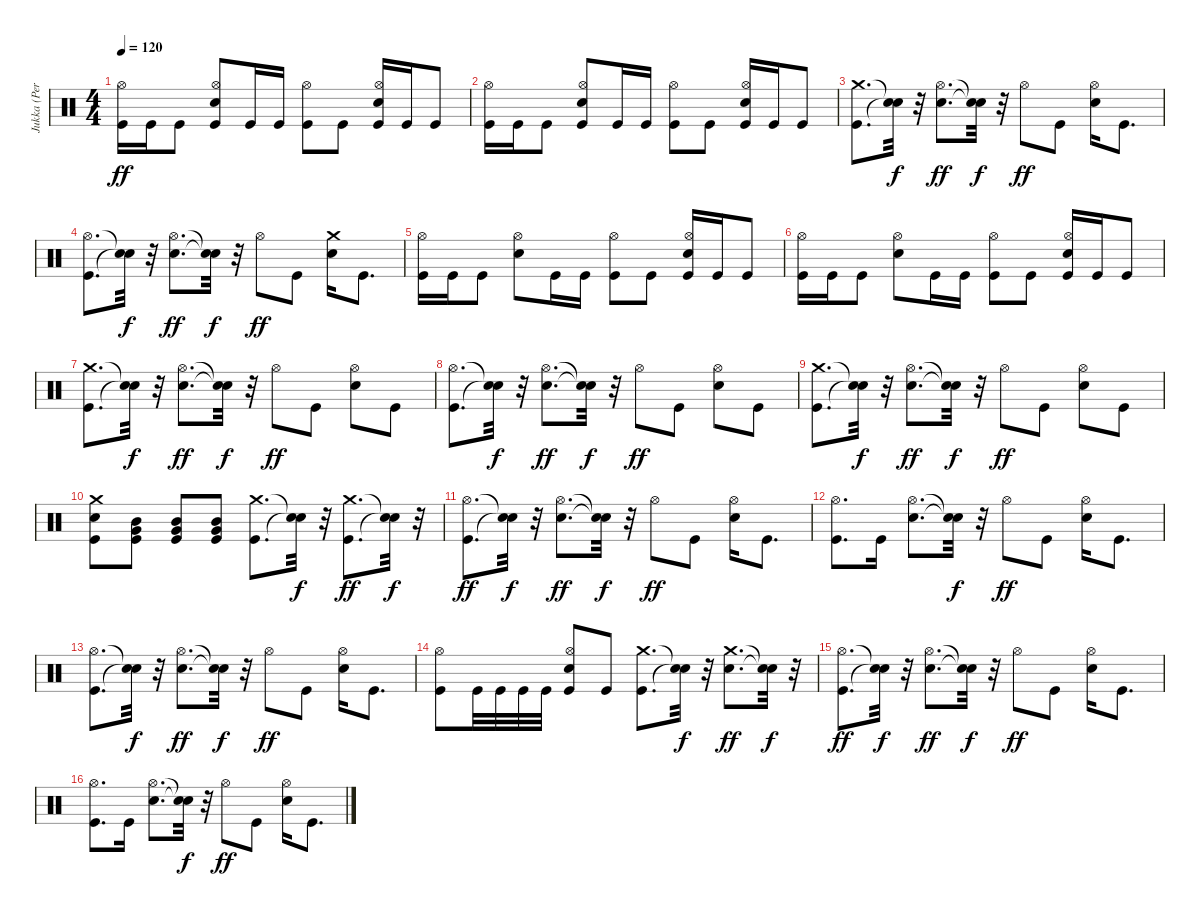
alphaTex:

\track ("Jukka (Percussion)" "Jukka (Per") {instrument percussion}
\staff {score}
\articulation defaults
\ts (4 4)
\tempo 120
\clef neutral
\ks c
("Kick (hit)" "Hi-Hat (open)").16{dy ff} "Kick (hit)".16 "Kick (hit)".8 ("Kick (hit)" "Electric Snare (hit)" "Hi-Hat (open)").8 "Kick (hit)".16 "Kick (hit)".16 ("Kick (hit)" "Hi-Hat (open)").8 "Kick (hit)".8 ("Kick (hit)" "Electric Snare (hit)" "Hi-Hat (open)").16 "Kick (hit)".16 "Kick (hit)".8 |
("Kick (hit)" "Hi-Hat (open)").16 "Kick (hit)".16 "Kick (hit)".8 ("Kick (hit)" "Electric Snare (hit)" "Hi-Hat (open)").8 "Kick (hit)".16 "Kick (hit)".16 ("Kick (hit)" "Hi-Hat (open)").8 "Kick (hit)".8 ("Kick (hit)" "Electric Snare (hit)" "Hi-Hat (open)").16 "Kick (hit)".16 "Kick (hit)".8 |
("Kick (hit)" "Crash medium (hit)").8{d} ("Snare (hit)"{t} "Snare (hit)"{t}).32{dy f} r.32 ("Electric Snare (hit)" "Hi-Hat (open)").8{d dy ff} ("Snare (hit)"{t} "Snare (hit)"{t}).32{dy f} r.32 "Hi-Hat (open)".8{dy ff} "Kick (hit)".8 ("Electric Snare (hit)" "Hi-Hat (open)").16 "Kick (hit)".8{d} |
("Kick (hit)" "Hi-Hat (open)").8{d} ("Snare (hit)"{t} "Snare (hit)"{t}).32{dy f} r.32 ("Electric Snare (hit)" "Hi-Hat (open)").8{d dy ff} ("Snare (hit)"{t} "Snare (hit)"{t}).32{dy f} r.32 "Hi-Hat (open)".8{dy ff} "Kick (hit)".8 ("Electric Snare (hit)" "Crash medium (hit)").16 "Kick (hit)".8{d} |
("Kick (hit)" "Hi-Hat (open)").16 "Kick (hit)".16 "Kick (hit)".8 ("Electric Snare (hit)" "Hi-Hat (open)").8 "Kick (hit)".16 "Kick (hit)".16 ("Kick (hit)" "Hi-Hat (open)").8 "Kick (hit)".8 ("Kick (hit)" "Electric Snare (hit)" "Hi-Hat (open)").16 "Kick (hit)".16 "Kick (hit)".8 |
("Kick (hit)" "Hi-Hat (open)").16 "Kick (hit)".16 "Kick (hit)".8 ("Electric Snare (hit)" "Hi-Hat (open)").8 "Kick (hit)".16 "Kick (hit)".16 ("Kick (hit)" "Hi-Hat (open)").8 "Kick (hit)".8 ("Kick (hit)" "Electric Snare (hit)" "Hi-Hat (open)").16 "Kick (hit)".16 "Kick (hit)".8 |
("Kick (hit)" "Crash medium (hit)").8{d} ("Snare (hit)"{t} "Snare (hit)"{t}).32{dy f} r.32 ("Electric Snare (hit)" "Hi-Hat (open)").8{d dy ff} ("Snare (hit)"{t} "Snare (hit)"{t}).32{dy f} r.32 "Hi-Hat (open)".8{dy ff} "Kick (hit)".8 ("Electric Snare (hit)" "Hi-Hat (open)").8 "Kick (hit)".8 |
("Kick (hit)" "Hi-Hat (open)").8{d} ("Snare (hit)"{t} "Snare (hit)"{t}).32{dy f} r.32 ("Electric Snare (hit)" "Hi-Hat (open)").8{d dy ff} ("Snare (hit)"{t} "Snare (hit)"{t}).32{dy f} r.32 "Hi-Hat (open)".8{dy ff} "Kick (hit)".8 ("Electric Snare (hit)" "Hi-Hat (open)").8 "Kick (hit)".8 |
("Kick (hit)" "Crash medium (hit)").8{d} ("Snare (hit)"{t} "Snare (hit)"{t}).32{dy f} r.32 ("Electric Snare (hit)" "Hi-Hat (open)").8{d dy ff} ("Snare (hit)"{t} "Snare (hit)"{t}).32{dy f} r.32 "Hi-Hat (open)".8{dy ff} "Kick (hit)".8 ("Electric Snare (hit)" "Hi-Hat (open)").8 "Kick (hit)".8 |
("Kick (hit)" "Electric Snare (hit)" "Crash medium (hit)").8 ("Kick (hit)" "Very Low Tom (hit)" "Mid Tom (hit)").8 ("Kick (hit)" "Very Low Tom (hit)" "Mid Tom (hit)").8 ("Kick (hit)" "Very Low Tom (hit)" "Mid Tom (hit)").8 ("Kick (hit)" "Crash medium (hit)").8{d} ("Snare (hit)"{t} "Snare (hit)"{t}).32{dy f} r.32 ("Kick (hit)" "Crash medium (hit)").8{d dy ff} ("Snare (hit)"{t} "Snare (hit)"{t}).32{dy f} r.32 |
("Kick (hit)" "Hi-Hat (open)").8{d dy ff} ("Snare (hit)"{t} "Snare (hit)"{t}).32{dy f} r.32 ("Electric Snare (hit)" "Hi-Hat (open)").8{d dy ff} ("Snare (hit)"{t} "Snare (hit)"{t}).32{dy f} r.32 "Hi-Hat (open)".8{dy ff} "Kick (hit)".8 ("Electric Snare (hit)" "Hi-Hat (open)").16 "Kick (hit)".8{d} |
("Kick (hit)" "Hi-Hat (open)").8{d} "Kick (hit)".16 ("Electric Snare (hit)" "Hi-Hat (open)").8{d} ("Snare (hit)"{t} "Snare (hit)"{t}).32{dy f} r.32 "Hi-Hat (open)".8{dy ff} "Kick (hit)".8 ("Electric Snare (hit)" "Hi-Hat (open)").16 "Kick (hit)".8{d} |
("Kick (hit)" "Hi-Hat (open)").8{d} ("Snare (hit)"{t} "Snare (hit)"{t}).32{dy f} r.32 ("Electric Snare (hit)" "Hi-Hat (open)").8{d dy ff} ("Snare (hit)"{t} "Snare (hit)"{t}).32{dy f} r.32 "Hi-Hat (open)".8{dy ff} "Kick (hit)".8 ("Electric Snare (hit)" "Hi-Hat (open)").16 "Kick (hit)".8{d} |
("Kick (hit)" "Hi-Hat (open)").8 "Kick (hit)".32 "Kick (hit)".32 "Kick (hit)".32 "Kick (hit)".32 ("Kick (hit)" "Electric Snare (hit)" "Hi-Hat (open)").8 "Kick (hit)".8 ("Kick (hit)" "Crash medium (hit)").8{d} ("Snare (hit)"{t} "Snare (hit)"{t}).32{dy f} r.32 ("Electric Snare (hit)" "Crash medium (hit)").8{d dy ff} ("Snare (hit)"{t} "Snare (hit)"{t}).32{dy f} r.32 |
("Kick (hit)" "Hi-Hat (open)").8{d dy ff} ("Snare (hit)"{t} "Snare (hit)"{t}).32{dy f} r.32 ("Electric Snare (hit)" "Hi-Hat (open)").8{d dy ff} ("Snare (hit)"{t} "Snare (hit)"{t}).32{dy f} r.32 "Hi-Hat (open)".8{dy ff} "Kick (hit)".8 ("Electric Snare (hit)" "Hi-Hat (open)").16 "Kick (hit)".8{d} |
("Kick (hit)" "Hi-Hat (open)").8{d} "Kick (hit)".16 ("Electric Snare (hit)" "Hi-Hat (open)").8{d} ("Snare (hit)"{t} "Snare (hit)"{t}).32{dy f} r.32 "Hi-Hat (open)".8{dy ff} "Kick (hit)".8 ("Electric Snare (hit)" "Hi-Hat (open)").16 "Kick (hit)".8{d}
